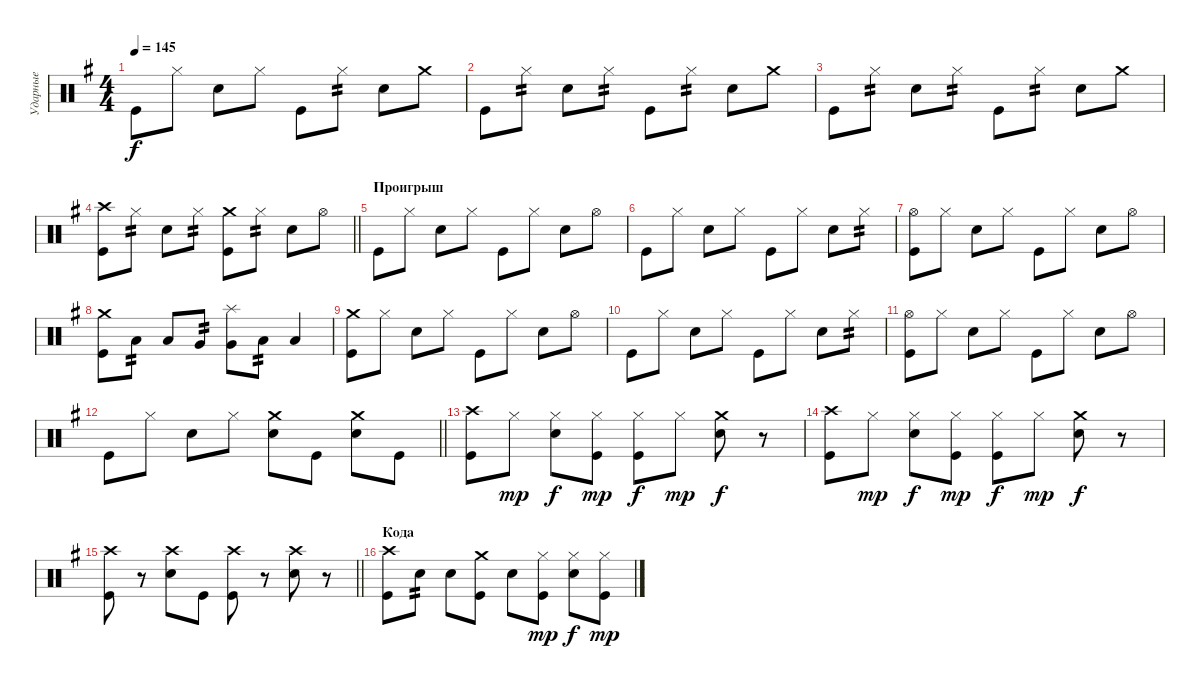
\track ("Ударные" "Ударные") {instrument percussion}
\staff {score}
\articulation defaults
\ts (4 4)
\tempo 145
\clef neutral
\ks eminor "Kick (hit)".8{dy f} "Hi-Hat (closed)".8 "Snare (hit) 2".8 "Hi-Hat (closed)".8 "Kick (hit)".8 "Hi-Hat (closed)".8{tp 2} "Snare (hit) 2".8 "Crash medium (hit)".8
|
"Kick (hit)".8 "Hi-Hat (closed)".8{tp 2} "Snare (hit) 2".8 "Hi-Hat (closed)".8{tp 2} "Kick (hit)".8 "Hi-Hat (closed)".8{tp 2} "Snare (hit) 2".8 "Crash medium (hit)".8 |
"Kick (hit)".8 "Hi-Hat (closed)".8{tp 2} "Snare (hit) 2".8 "Hi-Hat (closed)".8{tp 2} "Kick (hit)".8 "Hi-Hat (closed)".8{tp 2} "Snare (hit) 2".8 "Crash medium (hit)".8 |
\barLineRight lightlight
("Crash high (hit)" "Kick (hit)").8 "Hi-Hat (closed)".8{tp 2} "Snare (hit) 2".8 "Hi-Hat (closed)".8{tp 2} ("Crash medium (hit)" "Kick (hit)").8 "Hi-Hat (closed)".8{tp 2} "Snare (hit) 2".8 "Hi-Hat (open)".8 |
\section ("" "Проигрыш")
"Kick (hit)".8 "Hi-Hat (closed)".8 "Snare (hit) 2".8 "Hi-Hat (closed)".8 "Kick (hit)".8 "Hi-Hat (closed)".8 "Snare (hit) 2".8 "Hi-Hat (open)".8 |
"Kick (hit)".8 "Hi-Hat (closed)".8 "Snare (hit) 2".8 "Hi-Hat (closed)".8 "Kick (hit)".8 "Hi-Hat (closed)".8 "Snare (hit) 2".8 "Hi-Hat (closed)".8{tp 2} |
("Hi-Hat (open)" "Kick (hit)").8 "Hi-Hat (closed)".8 "Snare (hit) 2".8 "Hi-Hat (closed)".8 "Kick (hit)".8 "Hi-Hat (closed)".8 "Snare (hit) 2".8 "Hi-Hat (open)".8 |
("Crash medium (hit)" "Kick (hit)").8 "Low Tom (hit)".8{tp 2} "Low Tom (hit)".8 "Very Low Tom (hit)".8{tp 2} ("Splash (hit)" "Very Low Tom (hit)").8 "Low Floor Tom (hit)".8{tp 2} "Low Floor Tom (hit)".4 |
("Crash medium (hit)" "Kick (hit)").8 "Hi-Hat (closed)".8 "Snare (hit) 2".8 "Hi-Hat (closed)".8 "Kick (hit)".8 "Hi-Hat (closed)".8 "Snare (hit) 2".8 "Hi-Hat (open)".8 |
"Kick (hit)".8 "Hi-Hat (closed)".8 "Snare (hit) 2".8 "Hi-Hat (closed)".8 "Kick (hit)".8 "Hi-Hat (closed)".8 "Snare (hit) 2".8 "Hi-Hat (closed)".8{tp 2} |
("Hi-Hat (open)" "Kick (hit)").8 "Hi-Hat (closed)".8 "Snare (hit) 2".8 "Hi-Hat (closed)".8 "Kick (hit)".8 "Hi-Hat (closed)".8 "Snare (hit) 2".8 "Hi-Hat (open)".8 |
\barLineRight lightlight "Kick (hit)".8 "Hi-Hat (closed)".8 "Snare (hit) 2".8 "Hi-Hat (closed)".8
("Crash medium (hit)" "Snare (hit) 2").8 "Kick (hit)".8 ("Crash medium (hit)" "Snare (hit) 2").8 "Kick (hit)".8 |
("Crash high (hit)" "Kick (hit)").8 "Hi-Hat (closed)".8{dy mp} ("Hi-Hat (closed)" "Snare (hit) 2").8{dy f} ("Hi-Hat (closed)" "Kick (hit)").8{dy mp} ("Hi-Hat (closed)" "Kick (hit)").8{dy f} "Hi-Hat (closed)".8{dy mp} ("Crash medium (hit)" "Snare (hit) 2").8{dy f} r.8 |
("Crash high (hit)" "Kick (hit)").8 "Hi-Hat (closed)".8{dy mp} ("Hi-Hat (closed)" "Snare (hit) 2").8{dy f} ("Hi-Hat (closed)" "Kick (hit)").8{dy mp} ("Hi-Hat (closed)" "Kick (hit)").8{dy f} "Hi-Hat (closed)".8{dy mp} ("Crash medium (hit)" "Snare (hit) 2").8{dy f} r.8 |
\barLineRight lightlight
("Crash high (hit)" "Kick (hit)").8 r.8 ("Crash high (hit)" "Snare (hit) 2").8 "Kick (hit)".8 ("Crash high (hit)" "Kick (hit)").8 r.8 ("Crash high (hit)" "Snare (hit) 2").8 r.8 |
\section ("" "Кода")
("Crash high (hit)" "Kick (hit)").8 "Snare (hit) 2".8{tp 2} "Snare (hit) 2".8 ("Crash medium (hit)" "Kick (hit)").8 "Snare (hit) 2".8 ("Hi-Hat (closed)" "Kick (hit)").8{dy mp} ("Hi-Hat (closed)" "Snare (hit) 2").8{dy f} ("Hi-Hat (closed)" "Kick (hit)").8{dy mp}
